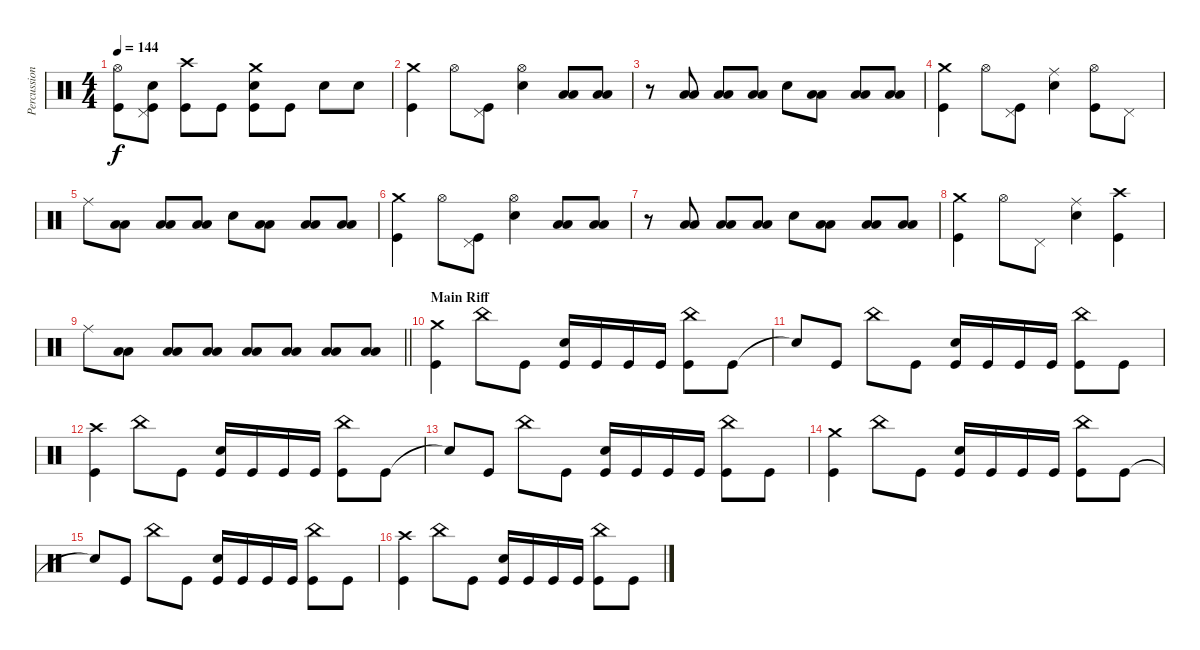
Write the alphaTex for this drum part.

\track ("Percussion" "Percussion") {instrument percussion}
\staff {score}
\articulation defaults
\ts (4 4)
\tempo 144
\clef neutral
\ks c
("Hi-Hat (open)" "Kick (hit)").8{dy f} ("Pedal Hi-Hat (hit)" "Electric Snare (hit)" "Kick (hit)").8 ("Crash high (hit)" "Kick (hit)").8 "Kick (hit)".8 ("Crash medium (hit)" "Electric Snare (hit)" "Kick (hit)").8 "Kick (hit)".8 "Electric Snare (hit)".8 "Electric Snare (hit)".8 |
("Crash medium (hit)" "Kick (hit)").4 "Hi-Hat (open)".8 ("Pedal Hi-Hat (hit)" "Kick (hit)").8 ("Hi-Hat (open)" "Electric Snare (hit)").4 ("Low Tom (hit)" "Low Floor Tom (hit)").8 ("Low Tom (hit)" "Low Floor Tom (hit)").8 |
r.8 ("Low Tom (hit)" "Low Floor Tom (hit)").8 ("Low Tom (hit)" "Low Floor Tom (hit)").8 ("Low Tom (hit)" "Low Floor Tom (hit)").8 "Electric Snare (hit)".8 ("Low Tom (hit)" "Low Floor Tom (hit)").8 ("Low Tom (hit)" "Low Floor Tom (hit)").8 ("Low Tom (hit)" "Low Floor Tom (hit)").8 |
("Crash medium (hit)" "Kick (hit)").4 "Hi-Hat (open)".8 ("Pedal Hi-Hat (hit)" "Kick (hit)").8 ("Ride (middle)" "Electric Snare (hit)").4 ("Hi-Hat (open)" "Kick (hit)").8 "Pedal Hi-Hat (hit)".8 |
"Ride (middle)".8 ("Low Tom (hit)" "Low Floor Tom (hit)").8 ("Low Tom (hit)" "Low Floor Tom (hit)").8 ("Low Tom (hit)" "Low Floor Tom (hit)").8 "Electric Snare (hit)".8 ("Low Tom (hit)" "Low Floor Tom (hit)").8 ("Low Tom (hit)" "Low Floor Tom (hit)").8 ("Low Tom (hit)" "Low Floor Tom (hit)").8 |
("Crash medium (hit)" "Kick (hit)").4 "Hi-Hat (open)".8 ("Pedal Hi-Hat (hit)" "Kick (hit)").8 ("Hi-Hat (open)" "Electric Snare (hit)").4 ("Low Tom (hit)" "Low Floor Tom (hit)").8 ("Low Tom (hit)" "Low Floor Tom (hit)").8 |
r.8 ("Low Tom (hit)" "Low Floor Tom (hit)").8 ("Low Tom (hit)" "Low Floor Tom (hit)").8 ("Low Tom (hit)" "Low Floor Tom (hit)").8 "Electric Snare (hit)".8 ("Low Tom (hit)" "Low Floor Tom (hit)").8 ("Low Tom (hit)" "Low Floor Tom (hit)").8 ("Low Tom (hit)" "Low Floor Tom (hit)").8 |
("Crash medium (hit)" "Kick (hit)").4 "Hi-Hat (open)".8 "Pedal Hi-Hat (hit)".8 ("Ride (middle)" "Electric Snare (hit)").4 ("Crash high (hit)" "Kick (hit)").4 |
\barLineRight lightlight "Ride (middle)".8
("Low Tom (hit)" "Low Tom (hit)").8 ("Low Tom (hit)" "Low Tom (hit)").8 ("Low Tom (hit)" "Low Tom (hit)").8 ("Low Tom (hit)" "Low Tom (hit)").8 ("Low Tom (hit)" "Low Tom (hit)").8 ("Low Tom (hit)" "Low Tom (hit)").8 ("Low Floor Tom (hit)" "Low Floor Tom (hit)").8 |
\section ("" "Main Riff")
("Crash medium (hit)" "Kick (hit)").4 "China (hit)".8 "Kick (hit)".8 ("Electric Snare (hit)" "Kick (hit)").16 "Kick (hit)".16 "Kick (hit)".16 "Kick (hit)".16 ("China (hit)" "Kick (hit)").8 "Kick (hit)".8 |
"Snare (hit)"{t}.8 "Kick (hit)".8 "China (hit)".8 "Kick (hit)".8 ("Electric Snare (hit)" "Kick (hit)").16 "Kick (hit)".16 "Kick (hit)".16 "Kick (hit)".16 ("China (hit)" "Kick (hit)").8 "Kick (hit)".8 |
("Crash high (hit)" "Kick (hit)").4 "China (hit)".8 "Kick (hit)".8 ("Electric Snare (hit)" "Kick (hit)").16 "Kick (hit)".16 "Kick (hit)".16 "Kick (hit)".16 ("China (hit)" "Kick (hit)").8 "Kick (hit)".8 |
"Snare (hit)"{t}.8 "Kick (hit)".8 "China (hit)".8 "Kick (hit)".8 ("Electric Snare (hit)" "Kick (hit)").16 "Kick (hit)".16 "Kick (hit)".16 "Kick (hit)".16 ("China (hit)" "Kick (hit)").8 "Kick (hit)".8 |
("Crash medium (hit)" "Kick (hit)").4 "China (hit)".8 "Kick (hit)".8 ("Electric Snare (hit)" "Kick (hit)").16 "Kick (hit)".16 "Kick (hit)".16 "Kick (hit)".16 ("China (hit)" "Kick (hit)").8 "Kick (hit)".8 |
"Snare (hit)"{t}.8 "Kick (hit)".8 "China (hit)".8 "Kick (hit)".8 ("Electric Snare (hit)" "Kick (hit)").16 "Kick (hit)".16 "Kick (hit)".16 "Kick (hit)".16 ("China (hit)" "Kick (hit)").8 "Kick (hit)".8 |
("Crash high (hit)" "Kick (hit)").4 "China (hit)".8 "Kick (hit)".8 ("Electric Snare (hit)" "Kick (hit)").16 "Kick (hit)".16 "Kick (hit)".16 "Kick (hit)".16 ("China (hit)" "Kick (hit)").8 "Kick (hit)".8
